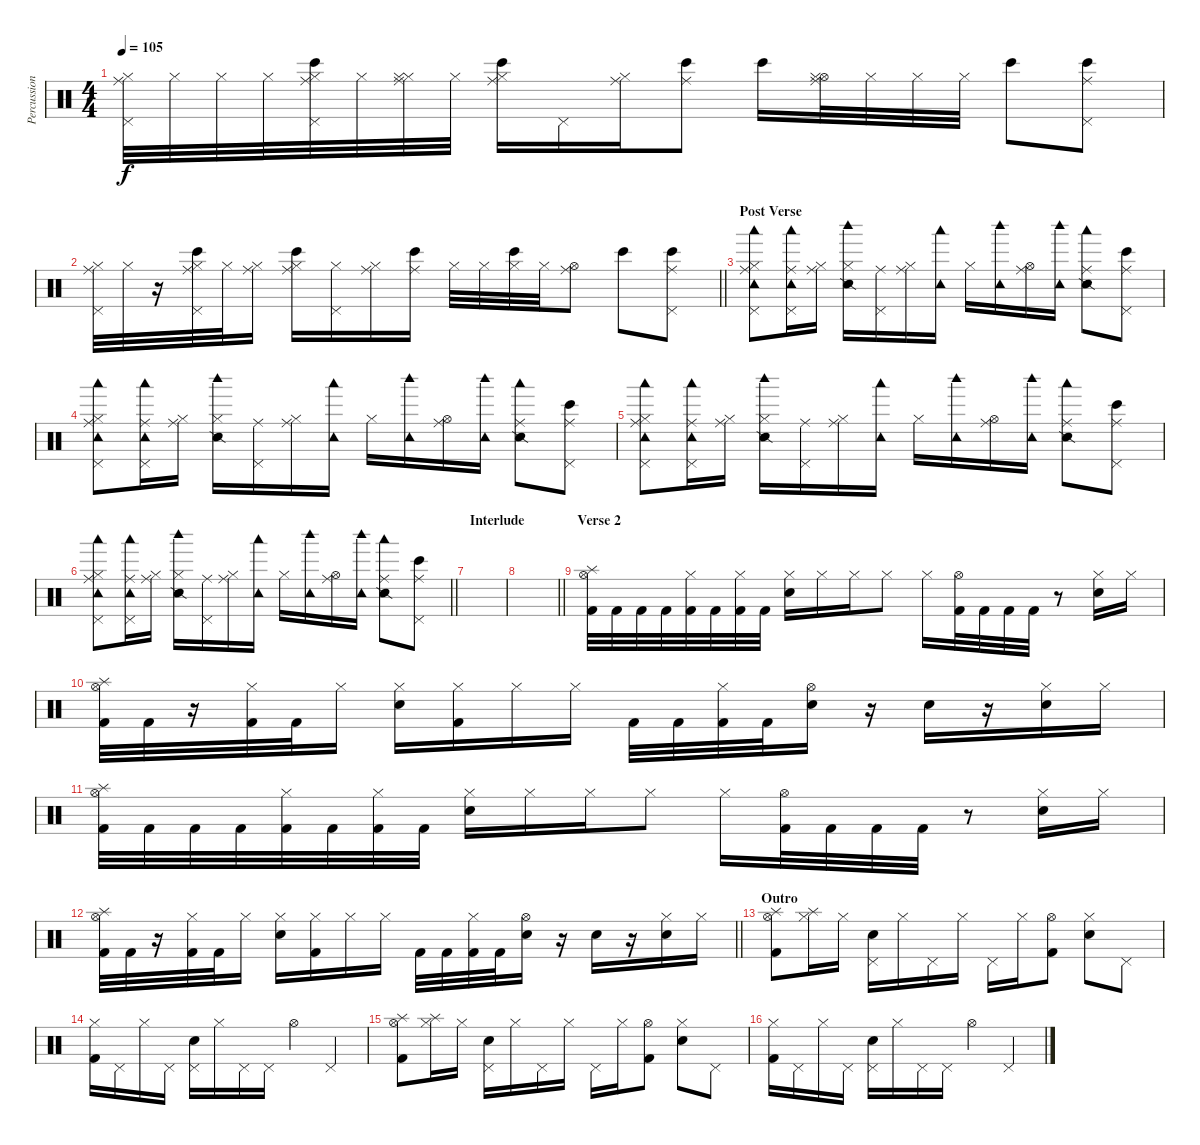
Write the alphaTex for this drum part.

\track ("Percussion" "Percussion") {instrument percussion}
\staff {score}
\articulation defaults
\ts (4 4)
\tempo 105
\clef neutral
\ks c
("Ride (middle)" "Pedal Hi-Hat (hit)" "Hi-Hat (closed)").32{dy f} "Hi-Hat (closed)".32 "Hi-Hat (closed)".32 "Hi-Hat (closed)".32 ("Ride (middle)" "Pedal Hi-Hat (hit)" "Bongo High (hit)" "Hi-Hat (closed)").32 "Hi-Hat (closed)".32 ("Ride (middle)" "Hi-Hat (closed)" "Hi-Hat (closed)").32 "Hi-Hat (closed)".32 ("Ride (middle)" "Hi-Hat (closed)" "Bongo High (hit)").16 "Pedal Hi-Hat (hit)".16 ("Ride (middle)" "Hi-Hat (closed)").16 ("Ride (middle)" "Bongo High (hit)").8 "Bongo High (hit)".16 ("Ride (middle)" "Hi-Hat (open)" "Hi-Hat (closed)").32 "Hi-Hat (closed)".32 "Hi-Hat (closed)".32 "Hi-Hat (closed)".32 "Bongo High (hit)".8 ("Ride (middle)" "Pedal Hi-Hat (hit)" "Bongo High (hit)").8 |
\barLineRight lightlight
("Ride (middle)" "Pedal Hi-Hat (hit)" "Hi-Hat (closed)").32 "Hi-Hat (closed)".32 r.16 ("Ride (middle)" "Pedal Hi-Hat (hit)" "Bongo High (hit)" "Hi-Hat (closed)").32 "Hi-Hat (closed)".32 ("Ride (middle)" "Hi-Hat (closed)").16 ("Ride (middle)" "Hi-Hat (closed)" "Bongo High (hit)").16 ("Pedal Hi-Hat (hit)" "Hi-Hat (closed)").16 ("Ride (middle)" "Hi-Hat (closed)").16 ("Ride (middle)" "Bongo High (hit)").16 "Hi-Hat (closed)".32 "Hi-Hat (closed)".32 ("Bongo High (hit)" "Hi-Hat (closed)").32 "Hi-Hat (closed)".32 ("Ride (middle)" "Hi-Hat (open)").8 "Bongo High (hit)".8 ("Ride (middle)" "Pedal Hi-Hat (hit)" "Bongo High (hit)").8 |
\section ("" "Post Verse")
("Ride (middle)" "Woodblock low (hit)" "Pedal Hi-Hat (hit)" "Tambourine (hit)" "Hi-Hat (closed)").8 ("Ride (middle)" "Woodblock low (hit)" "Pedal Hi-Hat (hit)" "Tambourine (hit)").16 ("Ride (middle)" "Hi-Hat (closed)").16 ("Woodblock high (hit)" "Hi-Hat (closed)" "Snare (side stick) 2").16 ("Ride (middle)" "Pedal Hi-Hat (hit)").16 ("Ride (middle)" "Hi-Hat (closed)").16 ("Woodblock low (hit)" "Tambourine (hit)").16 "Hi-Hat (closed)".16 ("Woodblock high (hit)" "Tambourine (hit)").16 ("Ride (middle)" "Hi-Hat (open)").16 ("Woodblock high (hit)" "Tambourine (hit)").16 ("Ride (middle)" "Woodblock low (hit)" "Snare (side stick) 2").8 ("Ride (middle)" "Pedal Hi-Hat (hit)" "Bongo High (hit)").8 |
("Ride (middle)" "Woodblock low (hit)" "Pedal Hi-Hat (hit)" "Tambourine (hit)" "Hi-Hat (closed)").8 ("Ride (middle)" "Woodblock low (hit)" "Pedal Hi-Hat (hit)" "Tambourine (hit)").16 ("Ride (middle)" "Hi-Hat (closed)").16 ("Woodblock high (hit)" "Hi-Hat (closed)" "Snare (side stick) 2").16 ("Ride (middle)" "Pedal Hi-Hat (hit)").16 ("Ride (middle)" "Hi-Hat (closed)").16 ("Woodblock low (hit)" "Tambourine (hit)").16 "Hi-Hat (closed)".16 ("Woodblock high (hit)" "Tambourine (hit)").16 ("Ride (middle)" "Hi-Hat (open)").16 ("Woodblock high (hit)" "Tambourine (hit)").16 ("Ride (middle)" "Woodblock low (hit)" "Snare (side stick) 2").8 ("Ride (middle)" "Pedal Hi-Hat (hit)" "Bongo High (hit)").8 |
("Ride (middle)" "Woodblock low (hit)" "Pedal Hi-Hat (hit)" "Tambourine (hit)" "Hi-Hat (closed)").8 ("Ride (middle)" "Woodblock low (hit)" "Pedal Hi-Hat (hit)" "Tambourine (hit)").16 ("Ride (middle)" "Hi-Hat (closed)").16 ("Woodblock high (hit)" "Hi-Hat (closed)" "Snare (side stick) 2").16 ("Ride (middle)" "Pedal Hi-Hat (hit)").16 ("Ride (middle)" "Hi-Hat (closed)").16 ("Woodblock low (hit)" "Tambourine (hit)").16 "Hi-Hat (closed)".16 ("Woodblock high (hit)" "Tambourine (hit)").16 ("Ride (middle)" "Hi-Hat (open)").16 ("Woodblock high (hit)" "Tambourine (hit)").16 ("Ride (middle)" "Woodblock low (hit)" "Snare (side stick) 2").8 ("Ride (middle)" "Pedal Hi-Hat (hit)" "Bongo High (hit)").8 |
\barLineRight lightlight
("Ride (middle)" "Woodblock low (hit)" "Pedal Hi-Hat (hit)" "Tambourine (hit)" "Hi-Hat (closed)").8 ("Ride (middle)" "Woodblock low (hit)" "Pedal Hi-Hat (hit)" "Tambourine (hit)").16 ("Ride (middle)" "Hi-Hat (closed)").16 ("Woodblock high (hit)" "Hi-Hat (closed)" "Snare (side stick) 2").16 ("Ride (middle)" "Pedal Hi-Hat (hit)").16 ("Ride (middle)" "Hi-Hat (closed)").16 ("Woodblock low (hit)" "Tambourine (hit)").16 "Hi-Hat (closed)".16 ("Woodblock high (hit)" "Tambourine (hit)").16 ("Ride (middle)" "Hi-Hat (open)").16 ("Woodblock high (hit)" "Tambourine (hit)").16 ("Ride (middle)" "Woodblock low (hit)" "Snare (side stick) 2").8 ("Ride (middle)" "Pedal Hi-Hat (hit)" "Bongo High (hit)").8 |
\section ("" "Interlude")
|
\barLineRight lightlight
|
\section ("" "Verse 2")
("Splash (hit)" "Hi-Hat (open)" "Kick (hit) 2").32 "Kick (hit) 2".32 "Kick (hit) 2".32 "Kick (hit) 2".32 ("Hi-Hat (closed)" "Kick (hit) 2").32 "Kick (hit) 2".32 ("Hi-Hat (closed)" "Kick (hit) 2").32 "Kick (hit) 2".32 ("Hi-Hat (closed)" "Electric Snare (hit)").16 "Hi-Hat (closed)".16 "Hi-Hat (closed)".16 "Hi-Hat (closed)".8 "Hi-Hat (closed)".16 ("Hi-Hat (open)" "Kick (hit) 2").32 "Kick (hit) 2".32 "Kick (hit) 2".32 "Kick (hit) 2".32 r.8 ("Hi-Hat (closed)" "Electric Snare (hit)").16 "Hi-Hat (closed)".16 |
("Splash (hit)" "Hi-Hat (open)" "Kick (hit) 2").32 "Kick (hit) 2".32 r.16 ("Hi-Hat (closed)" "Kick (hit) 2").32 "Kick (hit) 2".32 "Hi-Hat (closed)".16 ("Hi-Hat (closed)" "Electric Snare (hit)").16 ("Hi-Hat (closed)" "Kick (hit) 2").16 "Hi-Hat (closed)".16 "Hi-Hat (closed)".16 "Kick (hit) 2".32 "Kick (hit) 2".32 ("Hi-Hat (closed)" "Kick (hit) 2").32 "Kick (hit) 2".32 ("Hi-Hat (open)" "Electric Snare (hit)").16 r.16 "Electric Snare (hit)".16 r.16 ("Hi-Hat (closed)" "Electric Snare (hit)").16 "Hi-Hat (closed)".16 |
("Splash (hit)" "Hi-Hat (open)" "Kick (hit) 2").32 "Kick (hit) 2".32 "Kick (hit) 2".32 "Kick (hit) 2".32 ("Hi-Hat (closed)" "Kick (hit) 2").32 "Kick (hit) 2".32 ("Hi-Hat (closed)" "Kick (hit) 2").32 "Kick (hit) 2".32 ("Hi-Hat (closed)" "Electric Snare (hit)").16 "Hi-Hat (closed)".16 "Hi-Hat (closed)".16 "Hi-Hat (closed)".8 "Hi-Hat (closed)".16 ("Hi-Hat (open)" "Kick (hit) 2").32 "Kick (hit) 2".32 "Kick (hit) 2".32 "Kick (hit) 2".32 r.8 ("Hi-Hat (closed)" "Electric Snare (hit)").16 "Hi-Hat (closed)".16 |
\barLineRight lightlight
("Splash (hit)" "Hi-Hat (open)" "Kick (hit) 2").32 "Kick (hit) 2".32 r.16 ("Hi-Hat (closed)" "Kick (hit) 2").32 "Kick (hit) 2".32 "Hi-Hat (closed)".16 ("Hi-Hat (closed)" "Electric Snare (hit)").16 ("Hi-Hat (closed)" "Kick (hit) 2").16 "Hi-Hat (closed)".16 "Hi-Hat (closed)".16 "Kick (hit) 2".32 "Kick (hit) 2".32 ("Hi-Hat (closed)" "Kick (hit) 2").32 "Kick (hit) 2".32 ("Hi-Hat (open)" "Electric Snare (hit)").16 r.16 "Electric Snare (hit)".16 r.16 ("Hi-Hat (closed)" "Electric Snare (hit)").16 "Hi-Hat (closed)".16 |
\section ("" "Outro")
("Splash (hit)" "Hi-Hat (open)" "Kick (hit) 2").8 ("Splash (hit)" "Hi-Hat (closed)").16 "Hi-Hat (closed)".16 ("Pedal Hi-Hat (hit)" "Electric Snare (hit)").16 "Hi-Hat (closed)".16 "Pedal Hi-Hat (hit)".16 "Hi-Hat (closed)".16 "Pedal Hi-Hat (hit)".16 "Hi-Hat (closed)".16 ("Hi-Hat (open)" "Kick (hit) 2").8 ("Hi-Hat (closed)" "Electric Snare (hit)").8 "Pedal Hi-Hat (hit)".8 |
("Hi-Hat (closed)" "Kick (hit) 2").16 "Pedal Hi-Hat (hit)".16 "Hi-Hat (closed)".16 "Pedal Hi-Hat (hit)".16 ("Pedal Hi-Hat (hit)" "Electric Snare (hit)").16 "Hi-Hat (closed)".16 "Pedal Hi-Hat (hit)".16 "Pedal Hi-Hat (hit)".16 "Hi-Hat (open)".4 "Pedal Hi-Hat (hit)".4 |
("Splash (hit)" "Hi-Hat (open)" "Kick (hit) 2").8 ("Splash (hit)" "Hi-Hat (closed)").16 "Hi-Hat (closed)".16 ("Pedal Hi-Hat (hit)" "Electric Snare (hit)").16 "Hi-Hat (closed)".16 "Pedal Hi-Hat (hit)".16 "Hi-Hat (closed)".16 "Pedal Hi-Hat (hit)".16 "Hi-Hat (closed)".16 ("Hi-Hat (open)" "Kick (hit) 2").8 ("Hi-Hat (closed)" "Electric Snare (hit)").8 "Pedal Hi-Hat (hit)".8 |
("Hi-Hat (closed)" "Kick (hit) 2").16 "Pedal Hi-Hat (hit)".16 "Hi-Hat (closed)".16 "Pedal Hi-Hat (hit)".16 ("Pedal Hi-Hat (hit)" "Electric Snare (hit)").16 "Hi-Hat (closed)".16 "Pedal Hi-Hat (hit)".16 "Pedal Hi-Hat (hit)".16 "Hi-Hat (open)".4 "Pedal Hi-Hat (hit)".4
